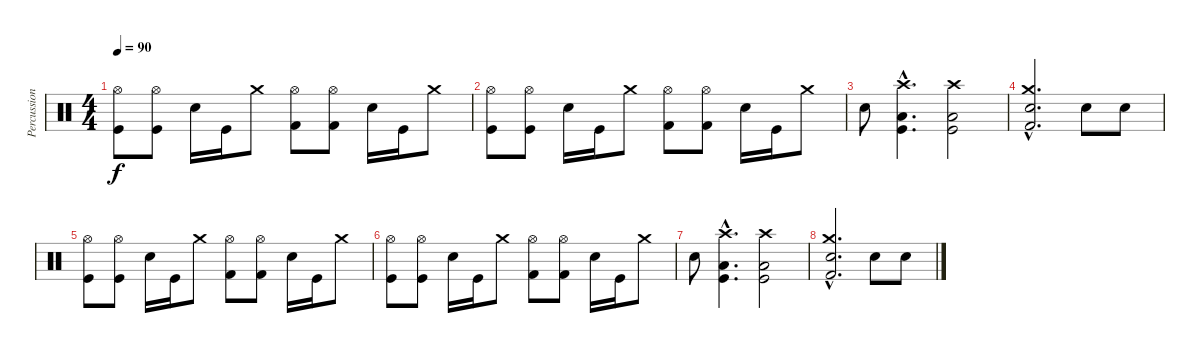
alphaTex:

\track ("Percussion" "Percussion") {instrument percussion}
\staff {score}
\articulation defaults
\ts (4 4)
\tempo 90
\clef neutral
\ks c
("Hi-Hat (open)" "Kick (hit)").8{dy f} ("Hi-Hat (open)" "Kick (hit)").8 "Electric Snare (hit)".16 "Kick (hit)".16 "Crash medium (hit)".8 ("Hi-Hat (open)" "Kick (hit) 2").8 ("Hi-Hat (open)" "Kick (hit) 2").8 "Electric Snare (hit)".16 "Kick (hit)".16 "Crash medium (hit)".8 |
("Hi-Hat (open)" "Kick (hit)").8 ("Hi-Hat (open)" "Kick (hit)").8 "Electric Snare (hit)".16 "Kick (hit)".16 "Crash medium (hit)".8 ("Hi-Hat (open)" "Kick (hit) 2").8 ("Hi-Hat (open)" "Kick (hit) 2").8 "Electric Snare (hit)".16 "Kick (hit)".16 "Crash medium (hit)".8 |
"Electric Snare (hit)".8 ("Low Tom (hit)"{hac} "Crash high (hit)"{hac} "Kick (hit)"{hac}).4{d} ("Low Tom (hit)" "Crash high (hit)" "Kick (hit)").2 |
("Crash medium (hit)"{hac} "Kick (hit) 2"{hac} "Electric Snare (hit)"{hac}).2{d} "Electric Snare (hit)".8 "Electric Snare (hit)".8 |
("Hi-Hat (open)" "Kick (hit)").8 ("Hi-Hat (open)" "Kick (hit)").8 "Electric Snare (hit)".16 "Kick (hit)".16 "Crash medium (hit)".8 ("Hi-Hat (open)" "Kick (hit) 2").8 ("Hi-Hat (open)" "Kick (hit) 2").8 "Electric Snare (hit)".16 "Kick (hit)".16 "Crash medium (hit)".8 |
("Hi-Hat (open)" "Kick (hit)").8 ("Hi-Hat (open)" "Kick (hit)").8 "Electric Snare (hit)".16 "Kick (hit)".16 "Crash medium (hit)".8 ("Hi-Hat (open)" "Kick (hit) 2").8 ("Hi-Hat (open)" "Kick (hit) 2").8 "Electric Snare (hit)".16 "Kick (hit)".16 "Crash medium (hit)".8 |
"Electric Snare (hit)".8 ("Low Tom (hit)"{hac} "Crash high (hit)"{hac} "Kick (hit)"{hac}).4{d} ("Low Tom (hit)" "Crash high (hit)" "Kick (hit)").2 |
("Crash medium (hit)"{hac} "Kick (hit) 2"{hac} "Electric Snare (hit)"{hac}).2{d} "Electric Snare (hit)".8 "Electric Snare (hit)".8
